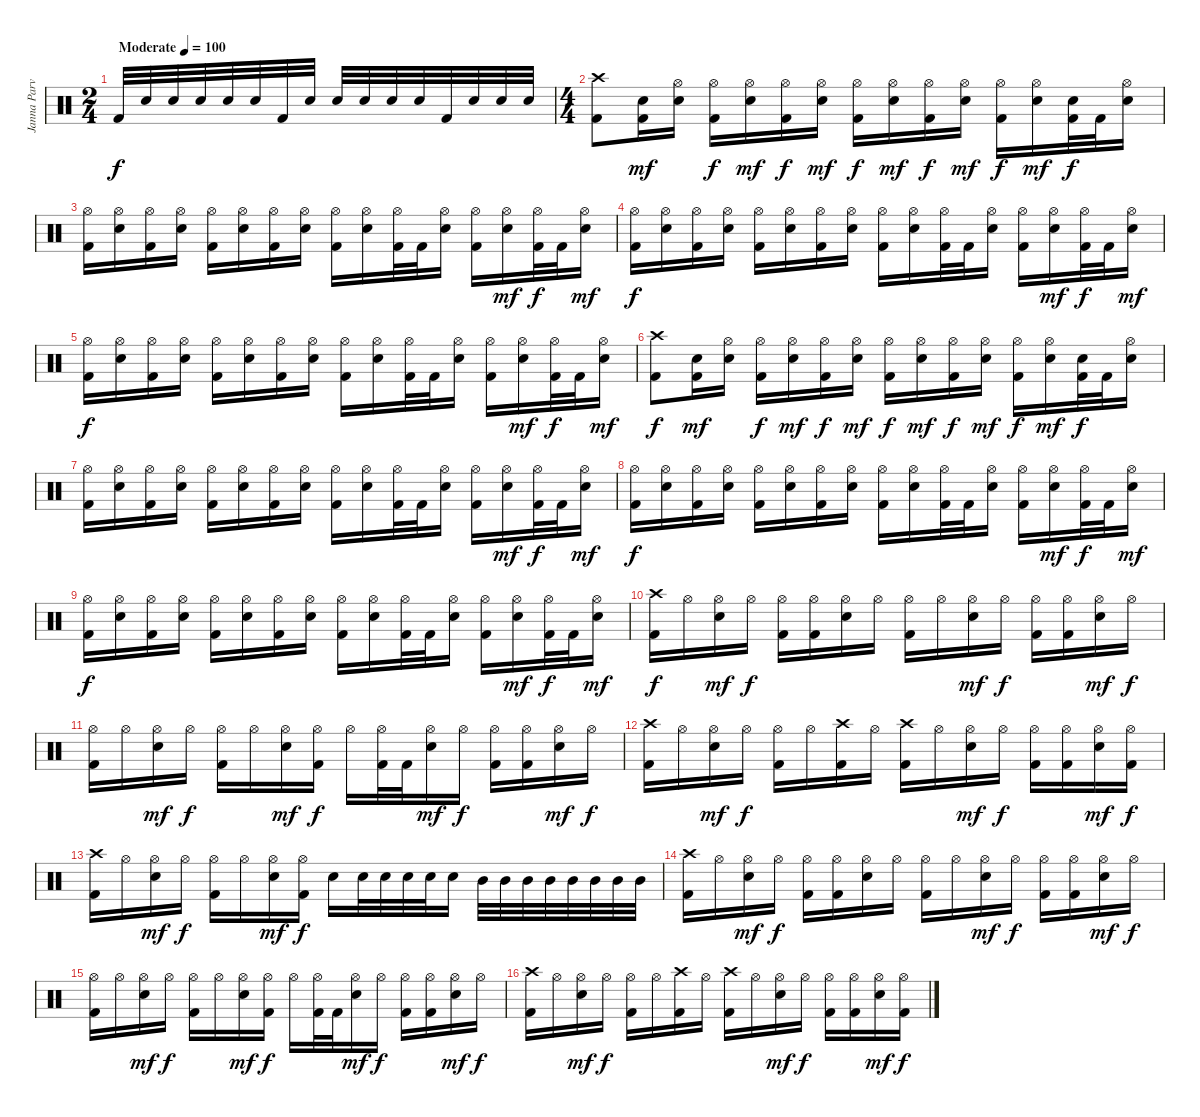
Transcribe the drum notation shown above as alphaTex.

\track ("Janna Parvienen" "Janna Parv") {solo instrument percussion}
\staff {score}
\articulation defaults
\ts (2 4)
\tempo (100 "Moderate")
\clef neutral
\ks c "Kick (hit) 2".32{dy f} "Electric Snare (hit)".32 "Electric Snare (hit)".32 "Electric Snare (hit)".32 "Electric Snare (hit)".32 "Electric Snare (hit)".32 "Kick (hit) 2".32 "Electric Snare (hit)".32 "Electric Snare (hit)".32 "Electric Snare (hit)".32 "Electric Snare (hit)".32 "Electric Snare (hit)".32 "Kick (hit) 2".32 "Electric Snare (hit)".32 "Electric Snare (hit)".32 "Electric Snare (hit)".32
|
\ts (4 4)
("Crash high (hit)" "Kick (hit) 2").8 ("Electric Snare (hit)" "Kick (hit) 2").16{dy mf} ("Hi-Hat (open)" "Electric Snare (hit)").16 ("Hi-Hat (open)" "Kick (hit) 2").16{dy f} ("Hi-Hat (open)" "Electric Snare (hit)").16{dy mf} ("Hi-Hat (open)" "Kick (hit) 2").16{dy f} ("Hi-Hat (open)" "Electric Snare (hit)").16{dy mf} ("Hi-Hat (open)" "Kick (hit) 2").16{dy f} ("Hi-Hat (open)" "Electric Snare (hit)").16{dy mf} ("Hi-Hat (open)" "Kick (hit) 2").16{dy f} ("Hi-Hat (open)" "Electric Snare (hit)").16{dy mf} ("Hi-Hat (open)" "Kick (hit) 2").16{dy f} ("Hi-Hat (open)" "Electric Snare (hit)").16{dy mf} ("Electric Snare (hit)" "Kick (hit) 2").32{dy f} "Kick (hit) 2".32 ("Hi-Hat (open)" "Electric Snare (hit)").16 |
("Hi-Hat (open)" "Kick (hit) 2").16 ("Hi-Hat (open)" "Electric Snare (hit)").16 ("Hi-Hat (open)" "Kick (hit) 2").16 ("Hi-Hat (open)" "Electric Snare (hit)").16 ("Hi-Hat (open)" "Kick (hit) 2").16 ("Hi-Hat (open)" "Electric Snare (hit)").16 ("Hi-Hat (open)" "Kick (hit) 2").16 ("Hi-Hat (open)" "Electric Snare (hit)").16 ("Hi-Hat (open)" "Kick (hit) 2").16 ("Hi-Hat (open)" "Electric Snare (hit)").16 ("Hi-Hat (open)" "Kick (hit) 2").32 "Kick (hit) 2".32 ("Hi-Hat (open)" "Electric Snare (hit)").16 ("Hi-Hat (open)" "Kick (hit) 2").16 ("Hi-Hat (open)" "Electric Snare (hit)").16{dy mf} ("Hi-Hat (open)" "Kick (hit) 2").32{dy f} "Kick (hit) 2".32 ("Hi-Hat (open)" "Electric Snare (hit)").16{dy mf} |
("Hi-Hat (open)" "Kick (hit) 2").16{dy f} ("Hi-Hat (open)" "Electric Snare (hit)").16 ("Hi-Hat (open)" "Kick (hit) 2").16 ("Hi-Hat (open)" "Electric Snare (hit)").16 ("Hi-Hat (open)" "Kick (hit) 2").16 ("Hi-Hat (open)" "Electric Snare (hit)").16 ("Hi-Hat (open)" "Kick (hit) 2").16 ("Hi-Hat (open)" "Electric Snare (hit)").16 ("Hi-Hat (open)" "Kick (hit) 2").16 ("Hi-Hat (open)" "Electric Snare (hit)").16 ("Hi-Hat (open)" "Kick (hit) 2").32 "Kick (hit) 2".32 ("Hi-Hat (open)" "Electric Snare (hit)").16 ("Hi-Hat (open)" "Kick (hit) 2").16 ("Hi-Hat (open)" "Electric Snare (hit)").16{dy mf} ("Hi-Hat (open)" "Kick (hit) 2").32{dy f} "Kick (hit) 2".32 ("Hi-Hat (open)" "Electric Snare (hit)").16{dy mf} |
("Hi-Hat (open)" "Kick (hit) 2").16{dy f} ("Hi-Hat (open)" "Electric Snare (hit)").16 ("Hi-Hat (open)" "Kick (hit) 2").16 ("Hi-Hat (open)" "Electric Snare (hit)").16 ("Hi-Hat (open)" "Kick (hit) 2").16 ("Hi-Hat (open)" "Electric Snare (hit)").16 ("Hi-Hat (open)" "Kick (hit) 2").16 ("Hi-Hat (open)" "Electric Snare (hit)").16 ("Hi-Hat (open)" "Kick (hit) 2").16 ("Hi-Hat (open)" "Electric Snare (hit)").16 ("Hi-Hat (open)" "Kick (hit) 2").32 "Kick (hit) 2".32 ("Hi-Hat (open)" "Electric Snare (hit)").16 ("Hi-Hat (open)" "Kick (hit) 2").16 ("Hi-Hat (open)" "Electric Snare (hit)").16{dy mf} ("Hi-Hat (open)" "Kick (hit) 2").32{dy f} "Kick (hit) 2".32 ("Hi-Hat (open)" "Electric Snare (hit)").16{dy mf} |
("Crash high (hit)" "Kick (hit) 2").8{dy f} ("Electric Snare (hit)" "Kick (hit) 2").16{dy mf} ("Hi-Hat (open)" "Electric Snare (hit)").16 ("Hi-Hat (open)" "Kick (hit) 2").16{dy f} ("Hi-Hat (open)" "Electric Snare (hit)").16{dy mf} ("Hi-Hat (open)" "Kick (hit) 2").16{dy f} ("Hi-Hat (open)" "Electric Snare (hit)").16{dy mf} ("Hi-Hat (open)" "Kick (hit) 2").16{dy f} ("Hi-Hat (open)" "Electric Snare (hit)").16{dy mf} ("Hi-Hat (open)" "Kick (hit) 2").16{dy f} ("Hi-Hat (open)" "Electric Snare (hit)").16{dy mf} ("Hi-Hat (open)" "Kick (hit) 2").16{dy f} ("Hi-Hat (open)" "Electric Snare (hit)").16{dy mf} ("Electric Snare (hit)" "Kick (hit) 2").32{dy f} "Kick (hit) 2".32 ("Hi-Hat (open)" "Electric Snare (hit)").16 |
("Hi-Hat (open)" "Kick (hit) 2").16 ("Hi-Hat (open)" "Electric Snare (hit)").16 ("Hi-Hat (open)" "Kick (hit) 2").16 ("Hi-Hat (open)" "Electric Snare (hit)").16 ("Hi-Hat (open)" "Kick (hit) 2").16 ("Hi-Hat (open)" "Electric Snare (hit)").16 ("Hi-Hat (open)" "Kick (hit) 2").16 ("Hi-Hat (open)" "Electric Snare (hit)").16 ("Hi-Hat (open)" "Kick (hit) 2").16 ("Hi-Hat (open)" "Electric Snare (hit)").16 ("Hi-Hat (open)" "Kick (hit) 2").32 "Kick (hit) 2".32 ("Hi-Hat (open)" "Electric Snare (hit)").16 ("Hi-Hat (open)" "Kick (hit) 2").16 ("Hi-Hat (open)" "Electric Snare (hit)").16{dy mf} ("Hi-Hat (open)" "Kick (hit) 2").32{dy f} "Kick (hit) 2".32 ("Hi-Hat (open)" "Electric Snare (hit)").16{dy mf} |
("Hi-Hat (open)" "Kick (hit) 2").16{dy f} ("Hi-Hat (open)" "Electric Snare (hit)").16 ("Hi-Hat (open)" "Kick (hit) 2").16 ("Hi-Hat (open)" "Electric Snare (hit)").16 ("Hi-Hat (open)" "Kick (hit) 2").16 ("Hi-Hat (open)" "Electric Snare (hit)").16 ("Hi-Hat (open)" "Kick (hit) 2").16 ("Hi-Hat (open)" "Electric Snare (hit)").16 ("Hi-Hat (open)" "Kick (hit) 2").16 ("Hi-Hat (open)" "Electric Snare (hit)").16 ("Hi-Hat (open)" "Kick (hit) 2").32 "Kick (hit) 2".32 ("Hi-Hat (open)" "Electric Snare (hit)").16 ("Hi-Hat (open)" "Kick (hit) 2").16 ("Hi-Hat (open)" "Electric Snare (hit)").16{dy mf} ("Hi-Hat (open)" "Kick (hit) 2").32{dy f} "Kick (hit) 2".32 ("Hi-Hat (open)" "Electric Snare (hit)").16{dy mf} |
("Hi-Hat (open)" "Kick (hit) 2").16{dy f} ("Hi-Hat (open)" "Electric Snare (hit)").16 ("Hi-Hat (open)" "Kick (hit) 2").16 ("Hi-Hat (open)" "Electric Snare (hit)").16 ("Hi-Hat (open)" "Kick (hit) 2").16 ("Hi-Hat (open)" "Electric Snare (hit)").16 ("Hi-Hat (open)" "Kick (hit) 2").16 ("Hi-Hat (open)" "Electric Snare (hit)").16 ("Hi-Hat (open)" "Kick (hit) 2").16 ("Hi-Hat (open)" "Electric Snare (hit)").16 ("Hi-Hat (open)" "Kick (hit) 2").32 "Kick (hit) 2".32 ("Hi-Hat (open)" "Electric Snare (hit)").16 ("Hi-Hat (open)" "Kick (hit) 2").16 ("Hi-Hat (open)" "Electric Snare (hit)").16{dy mf} ("Hi-Hat (open)" "Kick (hit) 2").32{dy f} "Kick (hit) 2".32 ("Hi-Hat (open)" "Electric Snare (hit)").16{dy mf} |
("Crash high (hit)" "Kick (hit) 2").16{dy f} "Hi-Hat (open)".16 ("Hi-Hat (open)" "Electric Snare (hit)").16{dy mf} "Hi-Hat (open)".16{dy f} ("Hi-Hat (open)" "Kick (hit) 2").16 ("Hi-Hat (open)" "Kick (hit) 2").16 ("Hi-Hat (open)" "Electric Snare (hit)").16 "Hi-Hat (open)".16 ("Hi-Hat (open)" "Kick (hit) 2").16 "Hi-Hat (open)".16 ("Hi-Hat (open)" "Electric Snare (hit)").16{dy mf} "Hi-Hat (open)".16{dy f} ("Hi-Hat (open)" "Kick (hit) 2").16 ("Hi-Hat (open)" "Kick (hit) 2").16 ("Hi-Hat (open)" "Electric Snare (hit)").16{dy mf} "Hi-Hat (open)".16{dy f} |
("Hi-Hat (open)" "Kick (hit) 2").16 "Hi-Hat (open)".16 ("Hi-Hat (open)" "Electric Snare (hit)").16{dy mf} "Hi-Hat (open)".16{dy f} ("Hi-Hat (open)" "Kick (hit) 2").16 "Hi-Hat (open)".16 ("Hi-Hat (open)" "Electric Snare (hit)").16{dy mf} ("Hi-Hat (open)" "Kick (hit) 2").16{dy f} "Hi-Hat (open)".16 ("Hi-Hat (open)" "Kick (hit) 2").32 "Kick (hit) 2".32 ("Hi-Hat (open)" "Electric Snare (hit)").16{dy mf} "Hi-Hat (open)".16{dy f} ("Hi-Hat (open)" "Kick (hit) 2").16 ("Hi-Hat (open)" "Kick (hit) 2").16 ("Hi-Hat (open)" "Electric Snare (hit)").16{dy mf} "Hi-Hat (open)".16{dy f} |
("Crash high (hit)" "Kick (hit) 2").16 "Hi-Hat (open)".16 ("Hi-Hat (open)" "Electric Snare (hit)").16{dy mf} "Hi-Hat (open)".16{dy f} ("Hi-Hat (open)" "Kick (hit) 2").16 "Hi-Hat (open)".16 ("Crash high (hit)" "Kick (hit) 2").16 "Hi-Hat (open)".16 ("Crash high (hit)" "Kick (hit) 2").16 "Hi-Hat (open)".16 ("Hi-Hat (open)" "Electric Snare (hit)").16{dy mf} "Hi-Hat (open)".16{dy f} ("Hi-Hat (open)" "Kick (hit) 2").16 ("Hi-Hat (open)" "Kick (hit) 2").16 ("Hi-Hat (open)" "Electric Snare (hit)").16{dy mf} ("Hi-Hat (open)" "Kick (hit) 2").16{dy f} |
("Crash high (hit)" "Kick (hit) 2").16 "Hi-Hat (open)".16 ("Hi-Hat (open)" "Electric Snare (hit)").16{dy mf} "Hi-Hat (open)".16{dy f} ("Hi-Hat (open)" "Kick (hit) 2").16 "Hi-Hat (open)".16 ("Hi-Hat (open)" "Electric Snare (hit)").16{dy mf} ("Hi-Hat (open)" "Kick (hit) 2").16{dy f} "Electric Snare (hit)".16 "Electric Snare (hit)".32 "Electric Snare (hit)".32 "Electric Snare (hit)".32 "Electric Snare (hit)".32 "Electric Snare (hit)".16 "Mid Tom (hit)".32 "Mid Tom (hit)".32 "Mid Tom (hit)".32 "Mid Tom (hit)".32 "Mid Tom (hit)".32 "Mid Tom (hit)".32 "Mid Tom (hit)".32 "Mid Tom (hit)".32 |
("Crash high (hit)" "Kick (hit) 2").16 "Hi-Hat (open)".16 ("Hi-Hat (open)" "Electric Snare (hit)").16{dy mf} "Hi-Hat (open)".16{dy f} ("Hi-Hat (open)" "Kick (hit) 2").16 ("Hi-Hat (open)" "Kick (hit) 2").16 ("Hi-Hat (open)" "Electric Snare (hit)").16 "Hi-Hat (open)".16 ("Hi-Hat (open)" "Kick (hit) 2").16 "Hi-Hat (open)".16 ("Hi-Hat (open)" "Electric Snare (hit)").16{dy mf} "Hi-Hat (open)".16{dy f} ("Hi-Hat (open)" "Kick (hit) 2").16 ("Hi-Hat (open)" "Kick (hit) 2").16 ("Hi-Hat (open)" "Electric Snare (hit)").16{dy mf} "Hi-Hat (open)".16{dy f} |
("Hi-Hat (open)" "Kick (hit) 2").16 "Hi-Hat (open)".16 ("Hi-Hat (open)" "Electric Snare (hit)").16{dy mf} "Hi-Hat (open)".16{dy f} ("Hi-Hat (open)" "Kick (hit) 2").16 "Hi-Hat (open)".16 ("Hi-Hat (open)" "Electric Snare (hit)").16{dy mf} ("Hi-Hat (open)" "Kick (hit) 2").16{dy f} "Hi-Hat (open)".16 ("Hi-Hat (open)" "Kick (hit) 2").32 "Kick (hit) 2".32 ("Hi-Hat (open)" "Electric Snare (hit)").16{dy mf} "Hi-Hat (open)".16{dy f} ("Hi-Hat (open)" "Kick (hit) 2").16 ("Hi-Hat (open)" "Kick (hit) 2").16 ("Hi-Hat (open)" "Electric Snare (hit)").16{dy mf} "Hi-Hat (open)".16{dy f} |
("Crash high (hit)" "Kick (hit) 2").16 "Hi-Hat (open)".16 ("Hi-Hat (open)" "Electric Snare (hit)").16{dy mf} "Hi-Hat (open)".16{dy f} ("Hi-Hat (open)" "Kick (hit) 2").16 "Hi-Hat (open)".16 ("Crash high (hit)" "Kick (hit) 2").16 "Hi-Hat (open)".16 ("Crash high (hit)" "Kick (hit) 2").16 "Hi-Hat (open)".16 ("Hi-Hat (open)" "Electric Snare (hit)").16{dy mf} "Hi-Hat (open)".16{dy f} ("Hi-Hat (open)" "Kick (hit) 2").16 ("Hi-Hat (open)" "Kick (hit) 2").16 ("Hi-Hat (open)" "Electric Snare (hit)").16{dy mf} ("Hi-Hat (open)" "Kick (hit) 2").16{dy f}
